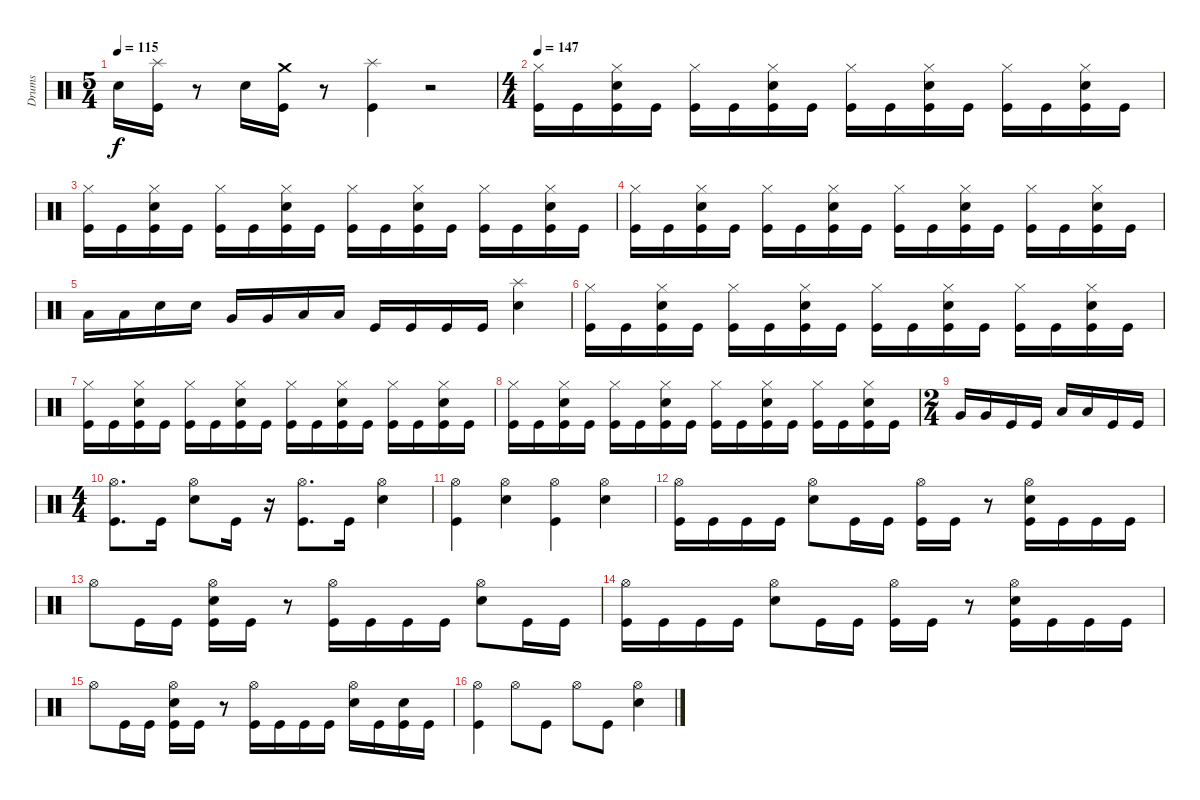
\track ("Drums" "Drums") {instrument percussion}
\staff {score}
\articulation defaults
\ts (5 4)
\tempo 115
\clef neutral
\ks c "Snare (hit) 2".16{dy f}
("Splash (hit)" "Kick (hit)").16 r.8 "Snare (hit) 2".16 ("Kick (hit)" "Crash medium (hit)").16 r.8 ("Kick (hit)" "Splash (hit)").4 r.2 |
\ts (4 4)
\tempo 147
("Kick (hit)" "Hi-Hat (closed)").16 "Kick (hit)".16 ("Hi-Hat (closed)" "Snare (hit) 2" "Kick (hit)").16 "Kick (hit)".16 ("Hi-Hat (closed)" "Kick (hit)").16 "Kick (hit)".16 ("Kick (hit)" "Hi-Hat (closed)" "Snare (hit) 2").16 "Kick (hit)".16 ("Hi-Hat (closed)" "Kick (hit)").16 "Kick (hit)".16 ("Hi-Hat (closed)" "Kick (hit)" "Snare (hit) 2").16 "Kick (hit)".16 ("Hi-Hat (closed)" "Kick (hit)").16 "Kick (hit)".16 ("Snare (hit) 2" "Hi-Hat (closed)" "Kick (hit)").16 "Kick (hit)".16 |
("Hi-Hat (closed)" "Kick (hit)").16 "Kick (hit)".16 ("Kick (hit)" "Snare (hit) 2" "Hi-Hat (closed)").16 "Kick (hit)".16 ("Kick (hit)" "Hi-Hat (closed)").16 "Kick (hit)".16 ("Hi-Hat (closed)" "Kick (hit)" "Snare (hit) 2").16 "Kick (hit)".16 ("Hi-Hat (closed)" "Kick (hit)").16 "Kick (hit)".16 ("Kick (hit)" "Snare (hit) 2" "Hi-Hat (closed)").16 "Kick (hit)".16 ("Hi-Hat (closed)" "Kick (hit)").16 "Kick (hit)".16 ("Hi-Hat (closed)" "Snare (hit) 2" "Kick (hit)").16 "Kick (hit)".16 |
("Hi-Hat (closed)" "Kick (hit)").16 "Kick (hit)".16 ("Kick (hit)" "Snare (hit) 2" "Hi-Hat (closed)").16 "Kick (hit)".16 ("Kick (hit)" "Hi-Hat (closed)").16 "Kick (hit)".16 ("Hi-Hat (closed)" "Snare (hit) 2" "Kick (hit)").16 "Kick (hit)".16 ("Kick (hit)" "Hi-Hat (closed)").16 "Kick (hit)".16 ("Hi-Hat (closed)" "Kick (hit)" "Snare (hit) 2").16 "Kick (hit)".16 ("Kick (hit)" "Hi-Hat (closed)").16 "Kick (hit)".16 ("Kick (hit)" "Hi-Hat (closed)" "Snare (hit) 2").16 "Kick (hit)".16 |
"Low Floor Tom (hit)".16 "Low Floor Tom (hit)".16 "Snare (hit) 2".16 "Snare (hit) 2".16 "Very Low Tom (hit)".16 "Very Low Tom (hit)".16 "Low Floor Tom (hit)".16 "Low Floor Tom (hit)".16 "Kick (hit)".16 "Kick (hit)".16 "Kick (hit)".16 "Kick (hit)".16 ("Snare (hit) 2" "Splash (hit)").4 |
("Hi-Hat (closed)" "Kick (hit)").16 "Kick (hit)".16 ("Hi-Hat (closed)" "Kick (hit)" "Snare (hit) 2").16 "Kick (hit)".16 ("Hi-Hat (closed)" "Kick (hit)").16 "Kick (hit)".16 ("Snare (hit) 2" "Hi-Hat (closed)" "Kick (hit)").16 "Kick (hit)".16 ("Kick (hit)" "Hi-Hat (closed)").16 "Kick (hit)".16 ("Hi-Hat (closed)" "Snare (hit) 2" "Kick (hit)").16 "Kick (hit)".16 ("Kick (hit)" "Hi-Hat (closed)").16 "Kick (hit)".16 ("Hi-Hat (closed)" "Kick (hit)" "Snare (hit) 2").16 "Kick (hit)".16 |
("Kick (hit)" "Hi-Hat (closed)").16 "Kick (hit)".16 ("Kick (hit)" "Hi-Hat (closed)" "Snare (hit) 2").16 "Kick (hit)".16 ("Hi-Hat (closed)" "Kick (hit)").16 "Kick (hit)".16 ("Hi-Hat (closed)" "Snare (hit) 2" "Kick (hit)").16 "Kick (hit)".16 ("Hi-Hat (closed)" "Kick (hit)").16 "Kick (hit)".16 ("Snare (hit) 2" "Kick (hit)" "Hi-Hat (closed)").16 "Kick (hit)".16 ("Hi-Hat (closed)" "Kick (hit)").16 "Kick (hit)".16 ("Hi-Hat (closed)" "Kick (hit)" "Snare (hit) 2").16 "Kick (hit)".16 |
("Kick (hit)" "Hi-Hat (closed)").16 "Kick (hit)".16 ("Snare (hit) 2" "Kick (hit)" "Hi-Hat (closed)").16 "Kick (hit)".16 ("Kick (hit)" "Hi-Hat (closed)").16 "Kick (hit)".16 ("Snare (hit) 2" "Hi-Hat (closed)" "Kick (hit)").16 "Kick (hit)".16 ("Kick (hit)" "Hi-Hat (closed)").16 "Kick (hit)".16 ("Kick (hit)" "Hi-Hat (closed)" "Snare (hit) 2").16 "Kick (hit)".16 ("Hi-Hat (closed)" "Kick (hit)").16 "Kick (hit)".16 ("Snare (hit) 2" "Kick (hit)" "Hi-Hat (closed)").16 "Kick (hit)".16 |
\ts (2 4)
"Very Low Tom (hit)".16 "Very Low Tom (hit)".16 "Kick (hit)".16 "Kick (hit)".16 "Low Floor Tom (hit)".16 "Low Floor Tom (hit)".16 "Kick (hit)".16 "Kick (hit)".16 |
\ts (4 4)
("Hi-Hat (open)" "Kick (hit)").8{d} "Kick (hit)".16 ("Snare (hit) 2" "Hi-Hat (open)").8 "Kick (hit)".16 r.16 ("Hi-Hat (open)" "Kick (hit)").8{d} "Kick (hit)".16 ("Hi-Hat (open)" "Snare (hit) 2").4 |
("Kick (hit)" "Hi-Hat (open)").4 ("Snare (hit) 2" "Hi-Hat (open)").4 ("Kick (hit)" "Hi-Hat (open)").4 ("Snare (hit) 2" "Hi-Hat (open)").4 |
("Hi-Hat (open)" "Kick (hit)").16 "Kick (hit)".16 "Kick (hit)".16 "Kick (hit)".16 ("Snare (hit) 2" "Hi-Hat (open)").8 "Kick (hit)".16 "Kick (hit)".16 ("Kick (hit)" "Hi-Hat (open)").16 "Kick (hit)".16 r.8 ("Kick (hit)" "Hi-Hat (open)" "Snare (hit) 2").16 "Kick (hit)".16 "Kick (hit)".16 "Kick (hit)".16 |
"Hi-Hat (open)".8 "Kick (hit)".16 "Kick (hit)".16 ("Hi-Hat (open)" "Kick (hit)" "Snare (hit) 2").16 "Kick (hit)".16 r.8 ("Kick (hit)" "Hi-Hat (open)").16 "Kick (hit)".16 "Kick (hit)".16 "Kick (hit)".16 ("Snare (hit) 2" "Hi-Hat (open)").8 "Kick (hit)".16 "Kick (hit)".16 |
("Hi-Hat (open)" "Kick (hit)").16 "Kick (hit)".16 "Kick (hit)".16 "Kick (hit)".16 ("Snare (hit) 2" "Hi-Hat (open)").8 "Kick (hit)".16 "Kick (hit)".16 ("Kick (hit)" "Hi-Hat (open)").16 "Kick (hit)".16 r.8 ("Snare (hit) 2" "Kick (hit)" "Hi-Hat (open)").16 "Kick (hit)".16 "Kick (hit)".16 "Kick (hit)".16 |
"Hi-Hat (open)".8 "Kick (hit)".16 "Kick (hit)".16 ("Hi-Hat (open)" "Kick (hit)" "Snare (hit) 2").16 "Kick (hit)".16 r.8 ("Kick (hit)" "Hi-Hat (open)").16 "Kick (hit)".16 "Kick (hit)".16 "Kick (hit)".16 ("Snare (hit) 2" "Hi-Hat (open)").16 "Kick (hit)".16 ("Snare (hit) 2" "Kick (hit)").16 "Kick (hit)".16 |
("Hi-Hat (open)" "Kick (hit)").4 "Hi-Hat (open)".8 "Kick (hit)".8 "Hi-Hat (open)".8 "Kick (hit)".8 ("Hi-Hat (open)" "Snare (hit) 2").4
